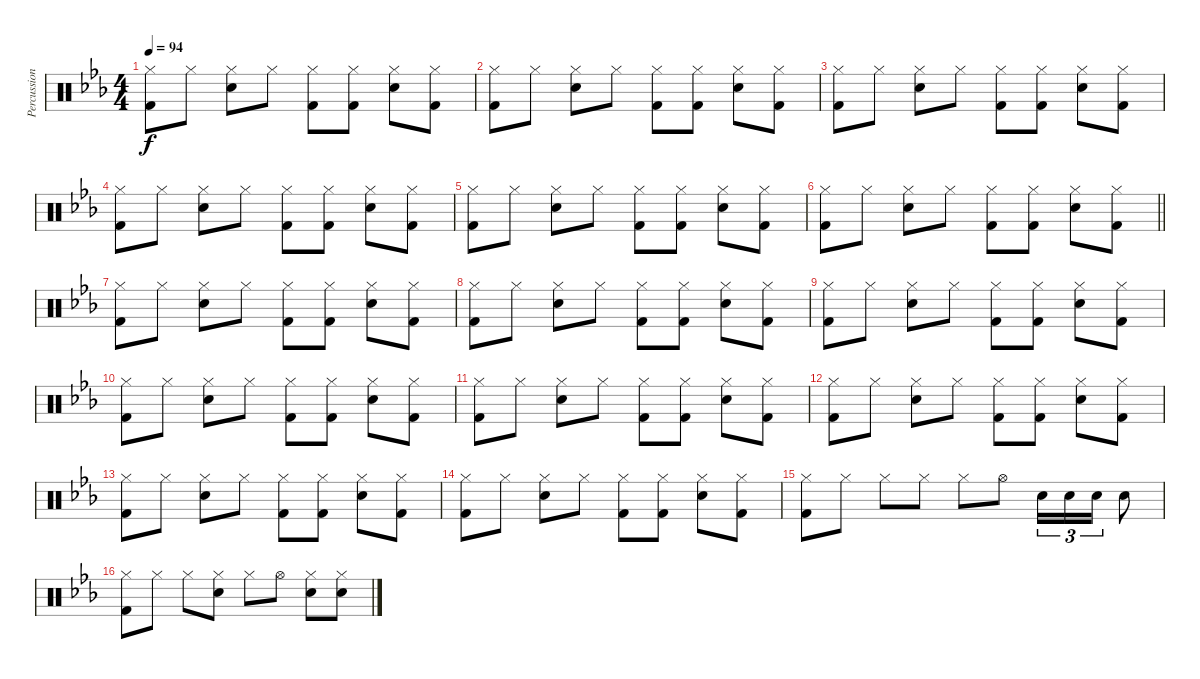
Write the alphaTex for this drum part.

\track ("Percussion" "Percussion") {instrument percussion}
\staff {score}
\articulation defaults
\ts (4 4)
\tempo 94
\clef neutral
\ks eb
("Hi-Hat (closed)" "Kick (hit) 2").8{dy f} "Hi-Hat (closed)".8 ("Hi-Hat (closed)" "Snare (hit) 2").8 "Hi-Hat (closed)".8 ("Hi-Hat (closed)" "Kick (hit) 2").8 ("Hi-Hat (closed)" "Kick (hit) 2").8 ("Hi-Hat (closed)" "Snare (hit) 2").8 ("Hi-Hat (closed)" "Kick (hit) 2").8 |
("Hi-Hat (closed)" "Kick (hit) 2").8 "Hi-Hat (closed)".8 ("Hi-Hat (closed)" "Snare (hit) 2").8 "Hi-Hat (closed)".8 ("Hi-Hat (closed)" "Kick (hit) 2").8 ("Hi-Hat (closed)" "Kick (hit) 2").8 ("Hi-Hat (closed)" "Snare (hit) 2").8 ("Hi-Hat (closed)" "Kick (hit) 2").8 |
("Hi-Hat (closed)" "Kick (hit) 2").8 "Hi-Hat (closed)".8 ("Hi-Hat (closed)" "Snare (hit) 2").8 "Hi-Hat (closed)".8 ("Hi-Hat (closed)" "Kick (hit) 2").8 ("Hi-Hat (closed)" "Kick (hit) 2").8 ("Hi-Hat (closed)" "Snare (hit) 2").8 ("Hi-Hat (closed)" "Kick (hit) 2").8 |
("Hi-Hat (closed)" "Kick (hit) 2").8 "Hi-Hat (closed)".8 ("Hi-Hat (closed)" "Snare (hit) 2").8 "Hi-Hat (closed)".8 ("Hi-Hat (closed)" "Kick (hit) 2").8 ("Hi-Hat (closed)" "Kick (hit) 2").8 ("Hi-Hat (closed)" "Snare (hit) 2").8 ("Hi-Hat (closed)" "Kick (hit) 2").8 |
("Hi-Hat (closed)" "Kick (hit) 2").8 "Hi-Hat (closed)".8 ("Hi-Hat (closed)" "Snare (hit) 2").8 "Hi-Hat (closed)".8 ("Hi-Hat (closed)" "Kick (hit) 2").8 ("Hi-Hat (closed)" "Kick (hit) 2").8 ("Hi-Hat (closed)" "Snare (hit) 2").8 ("Hi-Hat (closed)" "Kick (hit) 2").8 |
\barLineRight lightlight
("Hi-Hat (closed)" "Kick (hit) 2").8 "Hi-Hat (closed)".8 ("Hi-Hat (closed)" "Snare (hit) 2").8 "Hi-Hat (closed)".8 ("Hi-Hat (closed)" "Kick (hit) 2").8 ("Hi-Hat (closed)" "Kick (hit) 2").8 ("Hi-Hat (closed)" "Snare (hit) 2").8 ("Hi-Hat (closed)" "Kick (hit) 2").8 |
("Hi-Hat (closed)" "Kick (hit) 2").8 "Hi-Hat (closed)".8 ("Hi-Hat (closed)" "Snare (hit) 2").8 "Hi-Hat (closed)".8 ("Hi-Hat (closed)" "Kick (hit) 2").8 ("Hi-Hat (closed)" "Kick (hit) 2").8 ("Hi-Hat (closed)" "Snare (hit) 2").8 ("Hi-Hat (closed)" "Kick (hit) 2").8 |
("Hi-Hat (closed)" "Kick (hit) 2").8 "Hi-Hat (closed)".8 ("Hi-Hat (closed)" "Snare (hit) 2").8 "Hi-Hat (closed)".8 ("Hi-Hat (closed)" "Kick (hit) 2").8 ("Hi-Hat (closed)" "Kick (hit) 2").8 ("Hi-Hat (closed)" "Snare (hit) 2").8 ("Hi-Hat (closed)" "Kick (hit) 2").8 |
("Hi-Hat (closed)" "Kick (hit) 2").8 "Hi-Hat (closed)".8 ("Hi-Hat (closed)" "Snare (hit) 2").8 "Hi-Hat (closed)".8 ("Hi-Hat (closed)" "Kick (hit) 2").8 ("Hi-Hat (closed)" "Kick (hit) 2").8 ("Hi-Hat (closed)" "Snare (hit) 2").8 ("Hi-Hat (closed)" "Kick (hit) 2").8 |
("Hi-Hat (closed)" "Kick (hit) 2").8 "Hi-Hat (closed)".8 ("Hi-Hat (closed)" "Snare (hit) 2").8 "Hi-Hat (closed)".8 ("Hi-Hat (closed)" "Kick (hit) 2").8 ("Hi-Hat (closed)" "Kick (hit) 2").8 ("Hi-Hat (closed)" "Snare (hit) 2").8 ("Hi-Hat (closed)" "Kick (hit) 2").8 |
("Hi-Hat (closed)" "Kick (hit) 2").8 "Hi-Hat (closed)".8 ("Hi-Hat (closed)" "Snare (hit) 2").8 "Hi-Hat (closed)".8 ("Hi-Hat (closed)" "Kick (hit) 2").8 ("Hi-Hat (closed)" "Kick (hit) 2").8 ("Hi-Hat (closed)" "Snare (hit) 2").8 ("Hi-Hat (closed)" "Kick (hit) 2").8 |
("Hi-Hat (closed)" "Kick (hit) 2").8 "Hi-Hat (closed)".8 ("Hi-Hat (closed)" "Snare (hit) 2").8 "Hi-Hat (closed)".8 ("Hi-Hat (closed)" "Kick (hit) 2").8 ("Hi-Hat (closed)" "Kick (hit) 2").8 ("Hi-Hat (closed)" "Snare (hit) 2").8 ("Hi-Hat (closed)" "Kick (hit) 2").8 |
("Hi-Hat (closed)" "Kick (hit) 2").8 "Hi-Hat (closed)".8 ("Hi-Hat (closed)" "Snare (hit) 2").8 "Hi-Hat (closed)".8 ("Hi-Hat (closed)" "Kick (hit) 2").8 ("Hi-Hat (closed)" "Kick (hit) 2").8 ("Hi-Hat (closed)" "Snare (hit) 2").8 ("Hi-Hat (closed)" "Kick (hit) 2").8 |
("Hi-Hat (closed)" "Kick (hit) 2").8 "Hi-Hat (closed)".8 ("Hi-Hat (closed)" "Snare (hit) 2").8 "Hi-Hat (closed)".8 ("Hi-Hat (closed)" "Kick (hit) 2").8 ("Hi-Hat (closed)" "Kick (hit) 2").8 ("Hi-Hat (closed)" "Snare (hit) 2").8 ("Hi-Hat (closed)" "Kick (hit) 2").8 |
("Hi-Hat (closed)" "Kick (hit) 2").8 "Hi-Hat (closed)".8 "Hi-Hat (closed)".8 "Hi-Hat (closed)".8 "Hi-Hat (closed)".8 "Hi-Hat (open)".8 "Snare (hit) 2".16{tu (3 2)} "Snare (hit) 2".16{tu (3 2)} "Snare (hit) 2".16{tu (3 2)} "Snare (hit) 2".8 |
("Hi-Hat (closed)" "Kick (hit) 2").8 "Hi-Hat (closed)".8 "Hi-Hat (closed)".8 ("Hi-Hat (closed)" "Snare (hit) 2").8 "Hi-Hat (closed)".8 "Hi-Hat (open)".8 ("Hi-Hat (closed)" "Snare (hit) 2").8 ("Hi-Hat (closed)" "Snare (hit) 2").8
